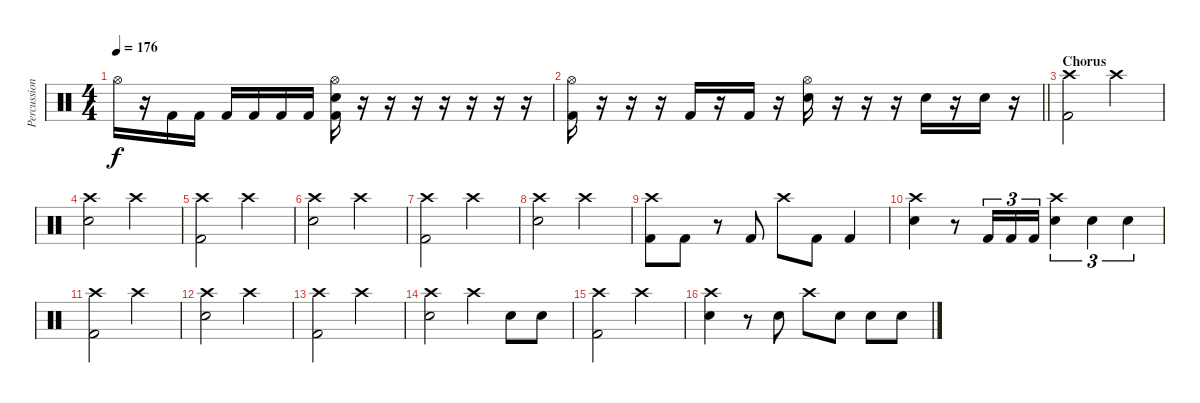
\track ("Percussion" "Percussion") {instrument percussion}
\staff {score}
\articulation defaults
\ts (4 4)
\tempo 176
\clef neutral
\ks c "Hi-Hat (open)".16{dy f}
r.16 "Kick (hit) 2".16 "Kick (hit) 2".16 "Kick (hit) 2".16 "Kick (hit) 2".16 "Kick (hit) 2".16 "Kick (hit) 2".16 ("Hi-Hat (open)" "Snare (hit) 2" "Kick (hit) 2").16 r.16 r.16 r.16 r.16 r.16 r.16 r.16 |
\barLineRight lightlight
("Hi-Hat (open)" "Kick (hit) 2").16 r.16 r.16 r.16 "Kick (hit) 2".16 r.16 "Kick (hit) 2".16 r.16 ("Hi-Hat (open)" "Snare (hit) 2").16 r.16 r.16 r.16 "Snare (hit) 2".16 r.16 "Snare (hit) 2".16 r.16 |
\section ("" "Chorus")
("Crash high (hit)" "Kick (hit) 2").2 "Crash high (hit)".2 |
("Crash high (hit)" "Snare (hit) 2").2 "Crash high (hit)".2 |
("Crash high (hit)" "Kick (hit) 2").2 "Crash high (hit)".2 |
("Crash high (hit)" "Snare (hit) 2").2 "Crash high (hit)".2 |
("Crash high (hit)" "Kick (hit) 2").2 "Crash high (hit)".2 |
("Crash high (hit)" "Snare (hit) 2").2 "Crash high (hit)".2 |
("Crash high (hit)" "Kick (hit) 2").8 "Kick (hit) 2".8 r.8 "Kick (hit) 2".8 "Crash high (hit)".8 "Kick (hit) 2".8 "Kick (hit) 2".4 |
("Crash high (hit)" "Snare (hit) 2").4 r.8 "Kick (hit) 2".16{tu (3 2)} "Kick (hit) 2".16{tu (3 2)} "Kick (hit) 2".16{tu (3 2)} ("Crash high (hit)" "Snare (hit) 2").4{tu (3 2)} "Snare (hit) 2".4{tu (3 2)} "Snare (hit) 2".4{tu (3 2)} |
("Crash high (hit)" "Kick (hit) 2").2 "Crash high (hit)".2 |
("Crash high (hit)" "Snare (hit) 2").2 "Crash high (hit)".2 |
("Crash high (hit)" "Kick (hit) 2").2 "Crash high (hit)".2 |
("Crash high (hit)" "Snare (hit) 2").2 "Crash high (hit)".4 "Snare (hit) 2".8 "Snare (hit) 2".8 |
("Crash high (hit)" "Kick (hit) 2").2 "Crash high (hit)".2 |
("Crash high (hit)" "Snare (hit) 2").4 r.8 "Snare (hit) 2".8 "Crash high (hit)".8 "Snare (hit) 2".8 "Snare (hit) 2".8 "Snare (hit) 2".8
